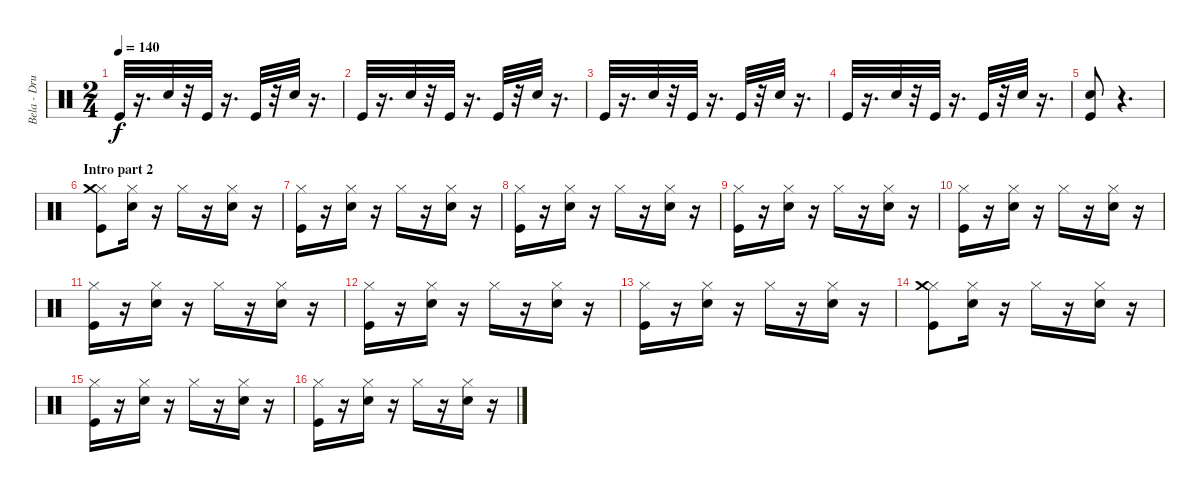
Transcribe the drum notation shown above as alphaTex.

\track ("Bela - Drums" "Bela - Dru") {instrument percussion}
\staff {score}
\articulation defaults
\ts (2 4)
\tempo 140
\clef neutral
\ks c "Kick (hit)".32{dy f}
r.16{d} "Electric Snare (hit)".32 r.32 "Kick (hit)".32 r.16{d} "Kick (hit)".32 r.32 "Electric Snare (hit)".32 r.16{d} |
"Kick (hit)".32 r.16{d} "Electric Snare (hit)".32 r.32 "Kick (hit)".32 r.16{d} "Kick (hit)".32 r.32 "Electric Snare (hit)".32 r.16{d} |
"Kick (hit)".32 r.16{d} "Electric Snare (hit)".32 r.32 "Kick (hit)".32 r.16{d} "Kick (hit)".32 r.32 "Electric Snare (hit)".32 r.16{d} |
"Kick (hit)".32 r.16{d} "Electric Snare (hit)".32 r.32 "Kick (hit)".32 r.16{d} "Kick (hit)".32 r.32 "Electric Snare (hit)".32 r.16{d} |
("Kick (hit)" "Electric Snare (hit)").8 r.4{d} |
\section ("" "Intro part 2")
("Kick (hit)" "Hi-Hat (closed)" "Crash medium (hit)").8 ("Electric Snare (hit)" "Hi-Hat (closed)").16 r.16 "Hi-Hat (closed)".16 r.16 ("Electric Snare (hit)" "Hi-Hat (closed)").16 r.16 |
("Kick (hit)" "Hi-Hat (closed)").16 r.16 ("Electric Snare (hit)" "Hi-Hat (closed)").16 r.16 "Hi-Hat (closed)".16 r.16 ("Electric Snare (hit)" "Hi-Hat (closed)").16 r.16 |
("Kick (hit)" "Hi-Hat (closed)").16 r.16 ("Electric Snare (hit)" "Hi-Hat (closed)").16 r.16 "Hi-Hat (closed)".16 r.16 ("Electric Snare (hit)" "Hi-Hat (closed)").16 r.16 |
("Kick (hit)" "Hi-Hat (closed)").16 r.16 ("Electric Snare (hit)" "Hi-Hat (closed)").16 r.16 "Hi-Hat (closed)".16 r.16 ("Electric Snare (hit)" "Hi-Hat (closed)").16 r.16 |
("Kick (hit)" "Hi-Hat (closed)").16 r.16 ("Electric Snare (hit)" "Hi-Hat (closed)").16 r.16 "Hi-Hat (closed)".16 r.16 ("Electric Snare (hit)" "Hi-Hat (closed)").16 r.16 |
("Kick (hit)" "Hi-Hat (closed)").16 r.16 ("Electric Snare (hit)" "Hi-Hat (closed)").16 r.16 "Hi-Hat (closed)".16 r.16 ("Electric Snare (hit)" "Hi-Hat (closed)").16 r.16 |
("Kick (hit)" "Hi-Hat (closed)").16 r.16 ("Electric Snare (hit)" "Hi-Hat (closed)").16 r.16 "Hi-Hat (closed)".16 r.16 ("Electric Snare (hit)" "Hi-Hat (closed)").16 r.16 |
("Kick (hit)" "Hi-Hat (closed)").16 r.16 ("Electric Snare (hit)" "Hi-Hat (closed)").16 r.16 "Hi-Hat (closed)".16 r.16 ("Electric Snare (hit)" "Hi-Hat (closed)").16 r.16 |
("Kick (hit)" "Hi-Hat (closed)" "Crash medium (hit)").8 ("Electric Snare (hit)" "Hi-Hat (closed)").16 r.16 "Hi-Hat (closed)".16 r.16 ("Electric Snare (hit)" "Hi-Hat (closed)").16 r.16 |
("Kick (hit)" "Hi-Hat (closed)").16 r.16 ("Electric Snare (hit)" "Hi-Hat (closed)").16 r.16 "Hi-Hat (closed)".16 r.16 ("Electric Snare (hit)" "Hi-Hat (closed)").16 r.16 |
("Kick (hit)" "Hi-Hat (closed)").16 r.16 ("Electric Snare (hit)" "Hi-Hat (closed)").16 r.16 "Hi-Hat (closed)".16 r.16 ("Electric Snare (hit)" "Hi-Hat (closed)").16 r.16
